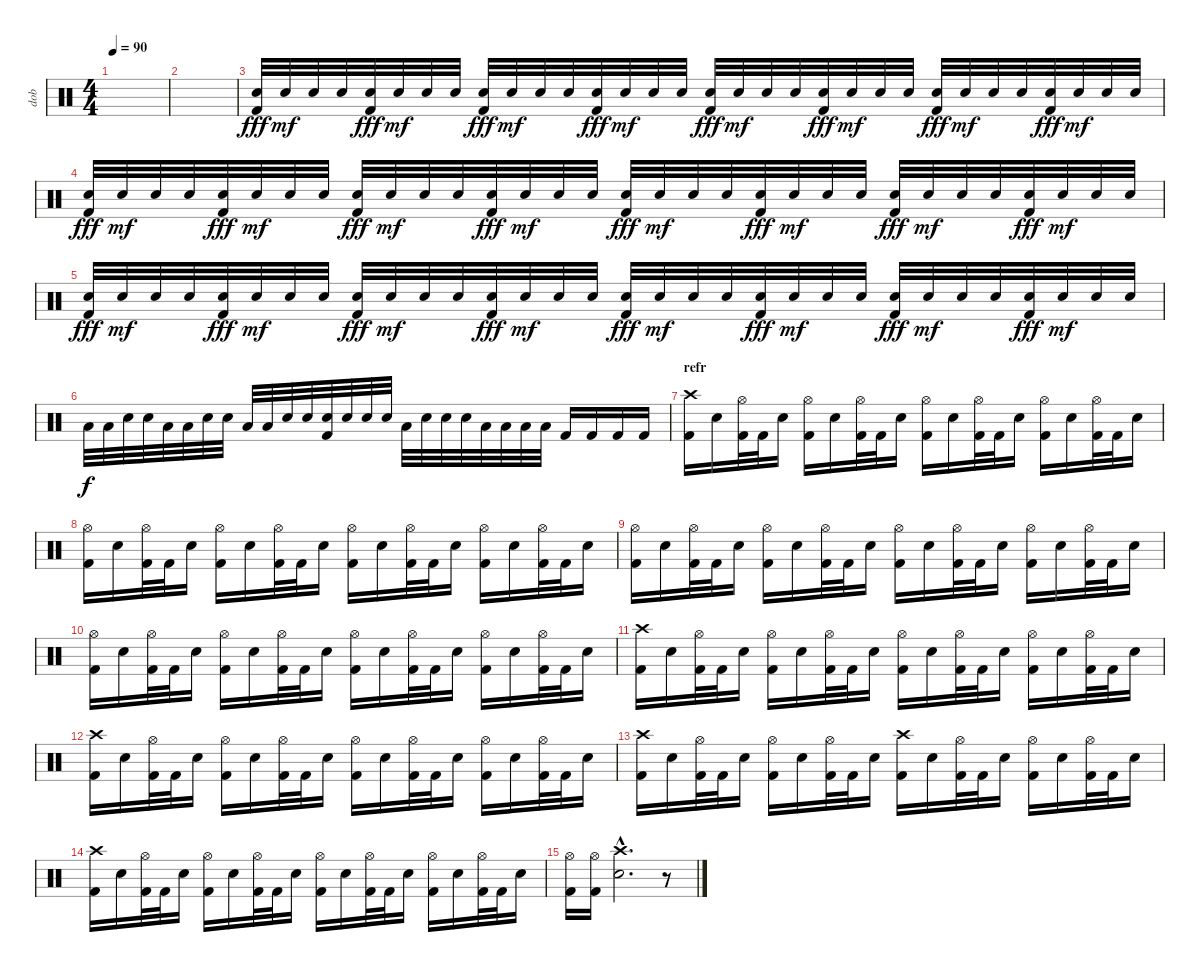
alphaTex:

\track ("dob" "dob") {instrument percussion}
\staff {score}
\articulation defaults
\ts (4 4)
\tempo 90
\clef neutral
\ks c
|
|
("Snare (hit) 2" "Kick (hit) 2").32{dy fff volume 13} "Snare (hit) 2".32{dy mf} "Snare (hit) 2".32 "Snare (hit) 2".32 ("Snare (hit) 2" "Kick (hit) 2").32{dy fff} "Snare (hit) 2".32{dy mf} "Snare (hit) 2".32 "Snare (hit) 2".32 ("Snare (hit) 2" "Kick (hit) 2").32{dy fff} "Snare (hit) 2".32{dy mf} "Snare (hit) 2".32 "Snare (hit) 2".32 ("Snare (hit) 2" "Kick (hit) 2").32{dy fff} "Snare (hit) 2".32{dy mf} "Snare (hit) 2".32 "Snare (hit) 2".32 ("Snare (hit) 2" "Kick (hit) 2").32{dy fff} "Snare (hit) 2".32{dy mf} "Snare (hit) 2".32 "Snare (hit) 2".32 ("Snare (hit) 2" "Kick (hit) 2").32{dy fff} "Snare (hit) 2".32{dy mf} "Snare (hit) 2".32 "Snare (hit) 2".32 ("Snare (hit) 2" "Kick (hit) 2").32{dy fff} "Snare (hit) 2".32{dy mf} "Snare (hit) 2".32 "Snare (hit) 2".32 ("Snare (hit) 2" "Kick (hit) 2").32{dy fff} "Snare (hit) 2".32{dy mf} "Snare (hit) 2".32 "Snare (hit) 2".32 |
("Snare (hit) 2" "Kick (hit) 2").32{dy fff} "Snare (hit) 2".32{dy mf} "Snare (hit) 2".32 "Snare (hit) 2".32 ("Snare (hit) 2" "Kick (hit) 2").32{dy fff} "Snare (hit) 2".32{dy mf} "Snare (hit) 2".32 "Snare (hit) 2".32 ("Snare (hit) 2" "Kick (hit) 2").32{dy fff} "Snare (hit) 2".32{dy mf} "Snare (hit) 2".32 "Snare (hit) 2".32 ("Snare (hit) 2" "Kick (hit) 2").32{dy fff} "Snare (hit) 2".32{dy mf} "Snare (hit) 2".32 "Snare (hit) 2".32 ("Snare (hit) 2" "Kick (hit) 2").32{dy fff} "Snare (hit) 2".32{dy mf} "Snare (hit) 2".32 "Snare (hit) 2".32 ("Snare (hit) 2" "Kick (hit) 2").32{dy fff} "Snare (hit) 2".32{dy mf} "Snare (hit) 2".32 "Snare (hit) 2".32 ("Snare (hit) 2" "Kick (hit) 2").32{dy fff} "Snare (hit) 2".32{dy mf} "Snare (hit) 2".32 "Snare (hit) 2".32 ("Snare (hit) 2" "Kick (hit) 2").32{dy fff} "Snare (hit) 2".32{dy mf} "Snare (hit) 2".32 "Snare (hit) 2".32 |
("Snare (hit) 2" "Kick (hit) 2").32{dy fff} "Snare (hit) 2".32{dy mf} "Snare (hit) 2".32 "Snare (hit) 2".32 ("Snare (hit) 2" "Kick (hit) 2").32{dy fff} "Snare (hit) 2".32{dy mf} "Snare (hit) 2".32 "Snare (hit) 2".32 ("Snare (hit) 2" "Kick (hit) 2").32{dy fff} "Snare (hit) 2".32{dy mf} "Snare (hit) 2".32 "Snare (hit) 2".32 ("Snare (hit) 2" "Kick (hit) 2").32{dy fff} "Snare (hit) 2".32{dy mf} "Snare (hit) 2".32 "Snare (hit) 2".32 ("Snare (hit) 2" "Kick (hit) 2").32{dy fff} "Snare (hit) 2".32{dy mf} "Snare (hit) 2".32 "Snare (hit) 2".32 ("Snare (hit) 2" "Kick (hit) 2").32{dy fff} "Snare (hit) 2".32{dy mf} "Snare (hit) 2".32 "Snare (hit) 2".32 ("Snare (hit) 2" "Kick (hit) 2").32{dy fff} "Snare (hit) 2".32{dy mf} "Snare (hit) 2".32 "Snare (hit) 2".32 ("Snare (hit) 2" "Kick (hit) 2").32{dy fff} "Snare (hit) 2".32{dy mf} "Snare (hit) 2".32 "Snare (hit) 2".32 |
"Low Tom (hit)".32{dy f} "Low Tom (hit)".32 "Snare (hit) 2".32 "Snare (hit) 2".32 "Low Tom (hit)".32 "Low Tom (hit)".32 "Snare (hit) 2".32 "Snare (hit) 2".32 "Low Tom (hit)".32 "Low Tom (hit)".32 "Snare (hit) 2".32 "Snare (hit) 2".32 ("Snare (hit) 2" "Kick (hit) 2").32 "Snare (hit) 2".32 "Snare (hit) 2".32 "Snare (hit) 2".32 "Low Tom (hit)".32 "Snare (hit) 2".32 "Snare (hit) 2".32 "Snare (hit) 2".32 "Low Tom (hit)".32 "Low Tom (hit)".32 "Low Tom (hit)".32 "Low Tom (hit)".32 "Kick (hit) 2".16 "Kick (hit) 2".16 "Kick (hit) 2".16 "Kick (hit) 2".16 |
\section ("" "refr")
("Crash high (hit)" "Kick (hit) 2").16 "Snare (hit) 2".16 ("Hi-Hat (open)" "Kick (hit) 2").32 "Kick (hit) 2".32 "Snare (hit) 2".16 ("Hi-Hat (open)" "Kick (hit) 2").16 "Snare (hit) 2".16 ("Hi-Hat (open)" "Kick (hit) 2").32 "Kick (hit) 2".32 "Snare (hit) 2".16 ("Hi-Hat (open)" "Kick (hit) 2").16 "Snare (hit) 2".16 ("Hi-Hat (open)" "Kick (hit) 2").32 "Kick (hit) 2".32 "Snare (hit) 2".16 ("Hi-Hat (open)" "Kick (hit) 2").16 "Snare (hit) 2".16 ("Hi-Hat (open)" "Kick (hit) 2").32 "Kick (hit) 2".32 "Snare (hit) 2".16 |
("Hi-Hat (open)" "Kick (hit) 2").16 "Snare (hit) 2".16 ("Hi-Hat (open)" "Kick (hit) 2").32 "Kick (hit) 2".32 "Snare (hit) 2".16 ("Hi-Hat (open)" "Kick (hit) 2").16 "Snare (hit) 2".16 ("Hi-Hat (open)" "Kick (hit) 2").32 "Kick (hit) 2".32 "Snare (hit) 2".16 ("Hi-Hat (open)" "Kick (hit) 2").16 "Snare (hit) 2".16 ("Hi-Hat (open)" "Kick (hit) 2").32 "Kick (hit) 2".32 "Snare (hit) 2".16 ("Hi-Hat (open)" "Kick (hit) 2").16 "Snare (hit) 2".16 ("Hi-Hat (open)" "Kick (hit) 2").32 "Kick (hit) 2".32 "Snare (hit) 2".16 |
("Hi-Hat (open)" "Kick (hit) 2").16 "Snare (hit) 2".16 ("Hi-Hat (open)" "Kick (hit) 2").32 "Kick (hit) 2".32 "Snare (hit) 2".16 ("Hi-Hat (open)" "Kick (hit) 2").16 "Snare (hit) 2".16 ("Hi-Hat (open)" "Kick (hit) 2").32 "Kick (hit) 2".32 "Snare (hit) 2".16 ("Hi-Hat (open)" "Kick (hit) 2").16 "Snare (hit) 2".16 ("Hi-Hat (open)" "Kick (hit) 2").32 "Kick (hit) 2".32 "Snare (hit) 2".16 ("Hi-Hat (open)" "Kick (hit) 2").16 "Snare (hit) 2".16 ("Hi-Hat (open)" "Kick (hit) 2").32 "Kick (hit) 2".32 "Snare (hit) 2".16 |
("Hi-Hat (open)" "Kick (hit) 2").16 "Snare (hit) 2".16 ("Hi-Hat (open)" "Kick (hit) 2").32 "Kick (hit) 2".32 "Snare (hit) 2".16 ("Hi-Hat (open)" "Kick (hit) 2").16 "Snare (hit) 2".16 ("Hi-Hat (open)" "Kick (hit) 2").32 "Kick (hit) 2".32 "Snare (hit) 2".16 ("Hi-Hat (open)" "Kick (hit) 2").16 "Snare (hit) 2".16 ("Hi-Hat (open)" "Kick (hit) 2").32 "Kick (hit) 2".32 "Snare (hit) 2".16 ("Hi-Hat (open)" "Kick (hit) 2").16 "Snare (hit) 2".16 ("Hi-Hat (open)" "Kick (hit) 2").32 "Kick (hit) 2".32 "Snare (hit) 2".16 |
("Crash high (hit)" "Kick (hit) 2").16 "Snare (hit) 2".16 ("Hi-Hat (open)" "Kick (hit) 2").32 "Kick (hit) 2".32 "Snare (hit) 2".16 ("Hi-Hat (open)" "Kick (hit) 2").16 "Snare (hit) 2".16 ("Hi-Hat (open)" "Kick (hit) 2").32 "Kick (hit) 2".32 "Snare (hit) 2".16 ("Hi-Hat (open)" "Kick (hit) 2").16 "Snare (hit) 2".16 ("Hi-Hat (open)" "Kick (hit) 2").32 "Kick (hit) 2".32 "Snare (hit) 2".16 ("Hi-Hat (open)" "Kick (hit) 2").16 "Snare (hit) 2".16 ("Hi-Hat (open)" "Kick (hit) 2").32 "Kick (hit) 2".32 "Snare (hit) 2".16 |
("Crash high (hit)" "Kick (hit) 2").16 "Snare (hit) 2".16 ("Hi-Hat (open)" "Kick (hit) 2").32 "Kick (hit) 2".32 "Snare (hit) 2".16 ("Hi-Hat (open)" "Kick (hit) 2").16 "Snare (hit) 2".16 ("Hi-Hat (open)" "Kick (hit) 2").32 "Kick (hit) 2".32 "Snare (hit) 2".16 ("Hi-Hat (open)" "Kick (hit) 2").16 "Snare (hit) 2".16 ("Hi-Hat (open)" "Kick (hit) 2").32 "Kick (hit) 2".32 "Snare (hit) 2".16 ("Hi-Hat (open)" "Kick (hit) 2").16 "Snare (hit) 2".16 ("Hi-Hat (open)" "Kick (hit) 2").32 "Kick (hit) 2".32 "Snare (hit) 2".16 |
("Crash high (hit)" "Kick (hit) 2").16 "Snare (hit) 2".16 ("Hi-Hat (open)" "Kick (hit) 2").32 "Kick (hit) 2".32 "Snare (hit) 2".16 ("Hi-Hat (open)" "Kick (hit) 2").16 "Snare (hit) 2".16 ("Hi-Hat (open)" "Kick (hit) 2").32 "Kick (hit) 2".32 "Snare (hit) 2".16 ("Crash high (hit)" "Kick (hit) 2").16 "Snare (hit) 2".16 ("Hi-Hat (open)" "Kick (hit) 2").32 "Kick (hit) 2".32 "Snare (hit) 2".16 ("Hi-Hat (open)" "Kick (hit) 2").16 "Snare (hit) 2".16 ("Hi-Hat (open)" "Kick (hit) 2").32 "Kick (hit) 2".32 "Snare (hit) 2".16 |
("Crash high (hit)" "Kick (hit) 2").16 "Snare (hit) 2".16 ("Hi-Hat (open)" "Kick (hit) 2").32 "Kick (hit) 2".32 "Snare (hit) 2".16 ("Hi-Hat (open)" "Kick (hit) 2").16 "Snare (hit) 2".16 ("Hi-Hat (open)" "Kick (hit) 2").32 "Kick (hit) 2".32 "Snare (hit) 2".16 ("Hi-Hat (open)" "Kick (hit) 2").16 "Snare (hit) 2".16 ("Hi-Hat (open)" "Kick (hit) 2").32 "Kick (hit) 2".32 "Snare (hit) 2".16 ("Hi-Hat (open)" "Kick (hit) 2").16 "Snare (hit) 2".16 ("Hi-Hat (open)" "Kick (hit) 2").32 "Kick (hit) 2".32 "Snare (hit) 2".16 |
("Hi-Hat (open)" "Kick (hit) 2").16 ("Hi-Hat (open)" "Kick (hit) 2").16 ("Crash high (hit)"{hac} "Snare (hit) 2"{hac}).2{d} r.8
